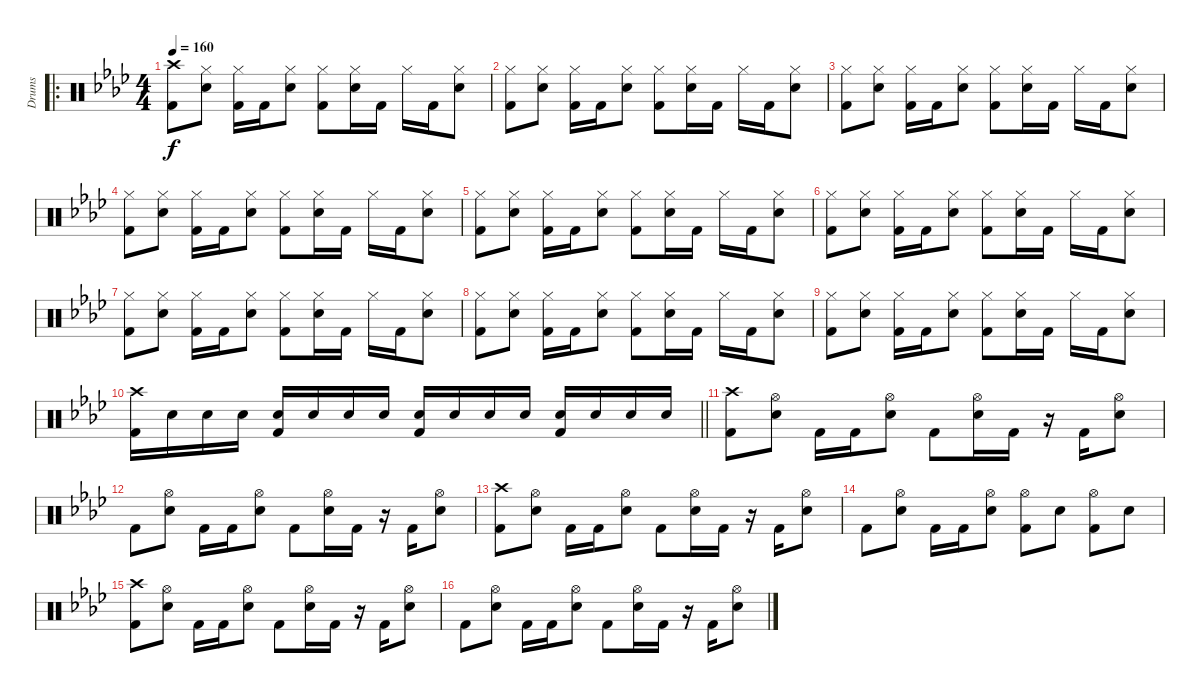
\track ("Drums" "Drums") {instrument percussion}
\staff {score}
\articulation defaults
\ro
\ts (4 4)
\tempo 160
\clef neutral
\ks ab
("Crash high (hit)" "Kick (hit) 2").8{dy f} ("Hi-Hat (closed)" "Electric Snare (hit)").8 ("Hi-Hat (closed)" "Kick (hit) 2").16 "Kick (hit) 2".16 ("Hi-Hat (closed)" "Electric Snare (hit)").8 ("Hi-Hat (closed)" "Kick (hit) 2").8 ("Hi-Hat (closed)" "Electric Snare (hit)").16 "Kick (hit) 2".16 "Hi-Hat (closed)".16 "Kick (hit) 2".16 ("Hi-Hat (closed)" "Electric Snare (hit)").8 |
("Hi-Hat (closed)" "Kick (hit) 2").8 ("Hi-Hat (closed)" "Electric Snare (hit)").8 ("Hi-Hat (closed)" "Kick (hit) 2").16 "Kick (hit) 2".16 ("Hi-Hat (closed)" "Electric Snare (hit)").8 ("Hi-Hat (closed)" "Kick (hit) 2").8 ("Hi-Hat (closed)" "Electric Snare (hit)").16 "Kick (hit) 2".16 "Hi-Hat (closed)".16 "Kick (hit) 2".16 ("Hi-Hat (closed)" "Electric Snare (hit)").8 |
("Hi-Hat (closed)" "Kick (hit) 2").8 ("Hi-Hat (closed)" "Electric Snare (hit)").8 ("Hi-Hat (closed)" "Kick (hit) 2").16 "Kick (hit) 2".16 ("Hi-Hat (closed)" "Electric Snare (hit)").8 ("Hi-Hat (closed)" "Kick (hit) 2").8 ("Hi-Hat (closed)" "Electric Snare (hit)").16 "Kick (hit) 2".16 "Hi-Hat (closed)".16 "Kick (hit) 2".16 ("Hi-Hat (closed)" "Electric Snare (hit)").8 |
("Hi-Hat (closed)" "Kick (hit) 2").8 ("Hi-Hat (closed)" "Electric Snare (hit)").8 ("Hi-Hat (closed)" "Kick (hit) 2").16 "Kick (hit) 2".16 ("Hi-Hat (closed)" "Electric Snare (hit)").8 ("Hi-Hat (closed)" "Kick (hit) 2").8 ("Hi-Hat (closed)" "Electric Snare (hit)").16 "Kick (hit) 2".16 "Hi-Hat (closed)".16 "Kick (hit) 2".16 ("Hi-Hat (closed)" "Electric Snare (hit)").8 |
("Hi-Hat (closed)" "Kick (hit) 2").8 ("Hi-Hat (closed)" "Electric Snare (hit)").8 ("Hi-Hat (closed)" "Kick (hit) 2").16 "Kick (hit) 2".16 ("Hi-Hat (closed)" "Electric Snare (hit)").8 ("Hi-Hat (closed)" "Kick (hit) 2").8 ("Hi-Hat (closed)" "Electric Snare (hit)").16 "Kick (hit) 2".16 "Hi-Hat (closed)".16 "Kick (hit) 2".16 ("Hi-Hat (closed)" "Electric Snare (hit)").8 |
("Hi-Hat (closed)" "Kick (hit) 2").8 ("Hi-Hat (closed)" "Electric Snare (hit)").8 ("Hi-Hat (closed)" "Kick (hit) 2").16 "Kick (hit) 2".16 ("Hi-Hat (closed)" "Electric Snare (hit)").8 ("Hi-Hat (closed)" "Kick (hit) 2").8 ("Hi-Hat (closed)" "Electric Snare (hit)").16 "Kick (hit) 2".16 "Hi-Hat (closed)".16 "Kick (hit) 2".16 ("Hi-Hat (closed)" "Electric Snare (hit)").8 |
("Hi-Hat (closed)" "Kick (hit) 2").8 ("Hi-Hat (closed)" "Electric Snare (hit)").8 ("Hi-Hat (closed)" "Kick (hit) 2").16 "Kick (hit) 2".16 ("Hi-Hat (closed)" "Electric Snare (hit)").8 ("Hi-Hat (closed)" "Kick (hit) 2").8 ("Hi-Hat (closed)" "Electric Snare (hit)").16 "Kick (hit) 2".16 "Hi-Hat (closed)".16 "Kick (hit) 2".16 ("Hi-Hat (closed)" "Electric Snare (hit)").8 |
("Hi-Hat (closed)" "Kick (hit) 2").8 ("Hi-Hat (closed)" "Electric Snare (hit)").8 ("Hi-Hat (closed)" "Kick (hit) 2").16 "Kick (hit) 2".16 ("Hi-Hat (closed)" "Electric Snare (hit)").8 ("Hi-Hat (closed)" "Kick (hit) 2").8 ("Hi-Hat (closed)" "Electric Snare (hit)").16 "Kick (hit) 2".16 "Hi-Hat (closed)".16 "Kick (hit) 2".16 ("Hi-Hat (closed)" "Electric Snare (hit)").8 |
("Hi-Hat (closed)" "Kick (hit) 2").8 ("Hi-Hat (closed)" "Electric Snare (hit)").8 ("Hi-Hat (closed)" "Kick (hit) 2").16 "Kick (hit) 2".16 ("Hi-Hat (closed)" "Electric Snare (hit)").8 ("Hi-Hat (closed)" "Kick (hit) 2").8 ("Hi-Hat (closed)" "Electric Snare (hit)").16 "Kick (hit) 2".16 "Hi-Hat (closed)".16 "Kick (hit) 2".16 ("Hi-Hat (closed)" "Electric Snare (hit)").8 |
\barLineRight lightlight
("Crash high (hit)" "Kick (hit) 2").16 "Electric Snare (hit)".16 "Electric Snare (hit)".16 "Electric Snare (hit)".16 ("Electric Snare (hit)" "Kick (hit) 2").16 "Electric Snare (hit)".16 "Electric Snare (hit)".16 "Electric Snare (hit)".16 ("Electric Snare (hit)" "Kick (hit) 2").16 "Electric Snare (hit)".16 "Electric Snare (hit)".16 "Electric Snare (hit)".16 ("Electric Snare (hit)" "Kick (hit) 2").16 "Electric Snare (hit)".16 "Electric Snare (hit)".16 "Electric Snare (hit)".16 |
("Crash high (hit)" "Kick (hit) 2").8 ("Hi-Hat (open)" "Electric Snare (hit)").8 "Kick (hit) 2".16 "Kick (hit) 2".16 ("Hi-Hat (open)" "Electric Snare (hit)").8 "Kick (hit) 2".8 ("Hi-Hat (open)" "Electric Snare (hit)").16 "Kick (hit) 2".16 r.16 "Kick (hit) 2".16 ("Hi-Hat (open)" "Electric Snare (hit)").8 |
"Kick (hit) 2".8 ("Hi-Hat (open)" "Electric Snare (hit)").8 "Kick (hit) 2".16 "Kick (hit) 2".16 ("Hi-Hat (open)" "Electric Snare (hit)").8 "Kick (hit) 2".8 ("Hi-Hat (open)" "Electric Snare (hit)").16 "Kick (hit) 2".16 r.16 "Kick (hit) 2".16 ("Hi-Hat (open)" "Electric Snare (hit)").8 |
("Crash high (hit)" "Kick (hit) 2").8 ("Hi-Hat (open)" "Electric Snare (hit)").8 "Kick (hit) 2".16 "Kick (hit) 2".16 ("Hi-Hat (open)" "Electric Snare (hit)").8 "Kick (hit) 2".8 ("Hi-Hat (open)" "Electric Snare (hit)").16 "Kick (hit) 2".16 r.16 "Kick (hit) 2".16 ("Hi-Hat (open)" "Electric Snare (hit)").8 |
"Kick (hit) 2".8 ("Hi-Hat (open)" "Electric Snare (hit)").8 "Kick (hit) 2".16 "Kick (hit) 2".16 ("Hi-Hat (open)" "Electric Snare (hit)").8 ("Hi-Hat (open)" "Kick (hit) 2").8 "Electric Snare (hit)".8 ("Hi-Hat (open)" "Kick (hit) 2").8 "Electric Snare (hit)".8 |
("Crash high (hit)" "Kick (hit) 2").8 ("Hi-Hat (open)" "Electric Snare (hit)").8 "Kick (hit) 2".16 "Kick (hit) 2".16 ("Hi-Hat (open)" "Electric Snare (hit)").8 "Kick (hit) 2".8 ("Hi-Hat (open)" "Electric Snare (hit)").16 "Kick (hit) 2".16 r.16 "Kick (hit) 2".16 ("Hi-Hat (open)" "Electric Snare (hit)").8 |
"Kick (hit) 2".8 ("Hi-Hat (open)" "Electric Snare (hit)").8 "Kick (hit) 2".16 "Kick (hit) 2".16 ("Hi-Hat (open)" "Electric Snare (hit)").8 "Kick (hit) 2".8 ("Hi-Hat (open)" "Electric Snare (hit)").16 "Kick (hit) 2".16 r.16 "Kick (hit) 2".16 ("Hi-Hat (open)" "Electric Snare (hit)").8
